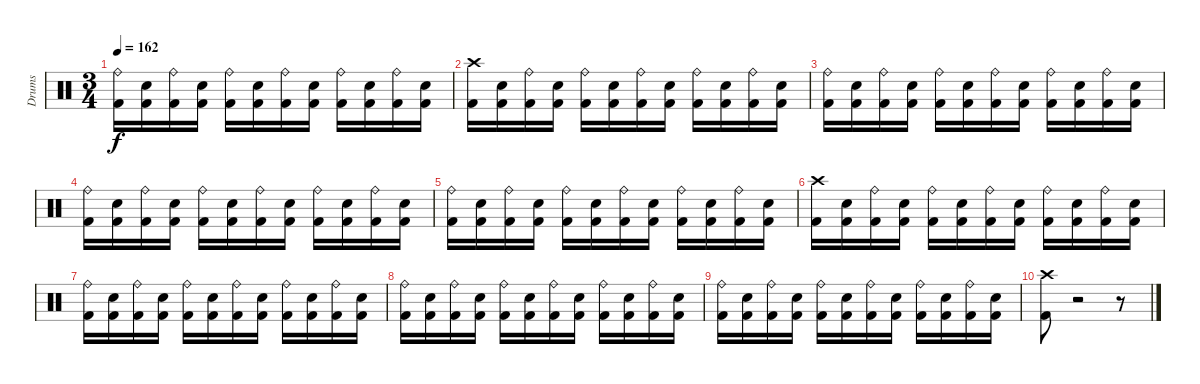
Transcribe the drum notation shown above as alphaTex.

\track ("Drums" "Drums") {instrument percussion}
\staff {score}
\articulation defaults
\ts (3 4)
\tempo 162
\clef neutral
\ks c
("Ride (bell)" "Kick (hit) 2").16{dy f} ("Snare (hit) 2" "Kick (hit) 2").16 ("Ride (bell)" "Kick (hit) 2").16 ("Snare (hit) 2" "Kick (hit) 2").16 ("Ride (bell)" "Kick (hit) 2").16 ("Snare (hit) 2" "Kick (hit) 2").16 ("Ride (bell)" "Kick (hit) 2").16 ("Snare (hit) 2" "Kick (hit) 2").16 ("Ride (bell)" "Kick (hit) 2").16 ("Snare (hit) 2" "Kick (hit) 2").16 ("Ride (bell)" "Kick (hit) 2").16 ("Snare (hit) 2" "Kick (hit) 2").16 |
("Crash high (hit)" "Kick (hit) 2").16 ("Snare (hit) 2" "Kick (hit) 2").16 ("Ride (bell)" "Kick (hit) 2").16 ("Snare (hit) 2" "Kick (hit) 2").16 ("Ride (bell)" "Kick (hit) 2").16 ("Snare (hit) 2" "Kick (hit) 2").16 ("Ride (bell)" "Kick (hit) 2").16 ("Snare (hit) 2" "Kick (hit) 2").16 ("Ride (bell)" "Kick (hit) 2").16 ("Snare (hit) 2" "Kick (hit) 2").16 ("Ride (bell)" "Kick (hit) 2").16 ("Snare (hit) 2" "Kick (hit) 2").16 |
("Ride (bell)" "Kick (hit) 2").16 ("Snare (hit) 2" "Kick (hit) 2").16 ("Ride (bell)" "Kick (hit) 2").16 ("Snare (hit) 2" "Kick (hit) 2").16 ("Ride (bell)" "Kick (hit) 2").16 ("Snare (hit) 2" "Kick (hit) 2").16 ("Ride (bell)" "Kick (hit) 2").16 ("Snare (hit) 2" "Kick (hit) 2").16 ("Ride (bell)" "Kick (hit) 2").16 ("Snare (hit) 2" "Kick (hit) 2").16 ("Ride (bell)" "Kick (hit) 2").16 ("Snare (hit) 2" "Kick (hit) 2").16 |
("Ride (bell)" "Kick (hit) 2").16 ("Snare (hit) 2" "Kick (hit) 2").16 ("Ride (bell)" "Kick (hit) 2").16 ("Snare (hit) 2" "Kick (hit) 2").16 ("Ride (bell)" "Kick (hit) 2").16 ("Snare (hit) 2" "Kick (hit) 2").16 ("Ride (bell)" "Kick (hit) 2").16 ("Snare (hit) 2" "Kick (hit) 2").16 ("Ride (bell)" "Kick (hit) 2").16 ("Snare (hit) 2" "Kick (hit) 2").16 ("Ride (bell)" "Kick (hit) 2").16 ("Snare (hit) 2" "Kick (hit) 2").16 |
("Ride (bell)" "Kick (hit) 2").16 ("Snare (hit) 2" "Kick (hit) 2").16 ("Ride (bell)" "Kick (hit) 2").16 ("Snare (hit) 2" "Kick (hit) 2").16 ("Ride (bell)" "Kick (hit) 2").16 ("Snare (hit) 2" "Kick (hit) 2").16 ("Ride (bell)" "Kick (hit) 2").16 ("Snare (hit) 2" "Kick (hit) 2").16 ("Ride (bell)" "Kick (hit) 2").16 ("Snare (hit) 2" "Kick (hit) 2").16 ("Ride (bell)" "Kick (hit) 2").16 ("Snare (hit) 2" "Kick (hit) 2").16 |
("Crash high (hit)" "Kick (hit) 2").16 ("Snare (hit) 2" "Kick (hit) 2").16 ("Ride (bell)" "Kick (hit) 2").16 ("Snare (hit) 2" "Kick (hit) 2").16 ("Ride (bell)" "Kick (hit) 2").16 ("Snare (hit) 2" "Kick (hit) 2").16 ("Ride (bell)" "Kick (hit) 2").16 ("Snare (hit) 2" "Kick (hit) 2").16 ("Ride (bell)" "Kick (hit) 2").16 ("Snare (hit) 2" "Kick (hit) 2").16 ("Ride (bell)" "Kick (hit) 2").16 ("Snare (hit) 2" "Kick (hit) 2").16 |
("Ride (bell)" "Kick (hit) 2").16 ("Snare (hit) 2" "Kick (hit) 2").16 ("Ride (bell)" "Kick (hit) 2").16 ("Snare (hit) 2" "Kick (hit) 2").16 ("Ride (bell)" "Kick (hit) 2").16 ("Snare (hit) 2" "Kick (hit) 2").16 ("Ride (bell)" "Kick (hit) 2").16 ("Snare (hit) 2" "Kick (hit) 2").16 ("Ride (bell)" "Kick (hit) 2").16 ("Snare (hit) 2" "Kick (hit) 2").16 ("Ride (bell)" "Kick (hit) 2").16 ("Snare (hit) 2" "Kick (hit) 2").16 |
("Ride (bell)" "Kick (hit) 2").16 ("Snare (hit) 2" "Kick (hit) 2").16 ("Ride (bell)" "Kick (hit) 2").16 ("Snare (hit) 2" "Kick (hit) 2").16 ("Ride (bell)" "Kick (hit) 2").16 ("Snare (hit) 2" "Kick (hit) 2").16 ("Ride (bell)" "Kick (hit) 2").16 ("Snare (hit) 2" "Kick (hit) 2").16 ("Ride (bell)" "Kick (hit) 2").16 ("Snare (hit) 2" "Kick (hit) 2").16 ("Ride (bell)" "Kick (hit) 2").16 ("Snare (hit) 2" "Kick (hit) 2").16 |
("Ride (bell)" "Kick (hit) 2").16 ("Snare (hit) 2" "Kick (hit) 2").16 ("Ride (bell)" "Kick (hit) 2").16 ("Snare (hit) 2" "Kick (hit) 2").16 ("Ride (bell)" "Kick (hit) 2").16 ("Snare (hit) 2" "Kick (hit) 2").16 ("Ride (bell)" "Kick (hit) 2").16 ("Snare (hit) 2" "Kick (hit) 2").16 ("Ride (bell)" "Kick (hit) 2").16 ("Snare (hit) 2" "Kick (hit) 2").16 ("Ride (bell)" "Kick (hit) 2").16 ("Snare (hit) 2" "Kick (hit) 2").16 |
("Crash high (hit)" "Kick (hit) 2").8 r.2 r.8
